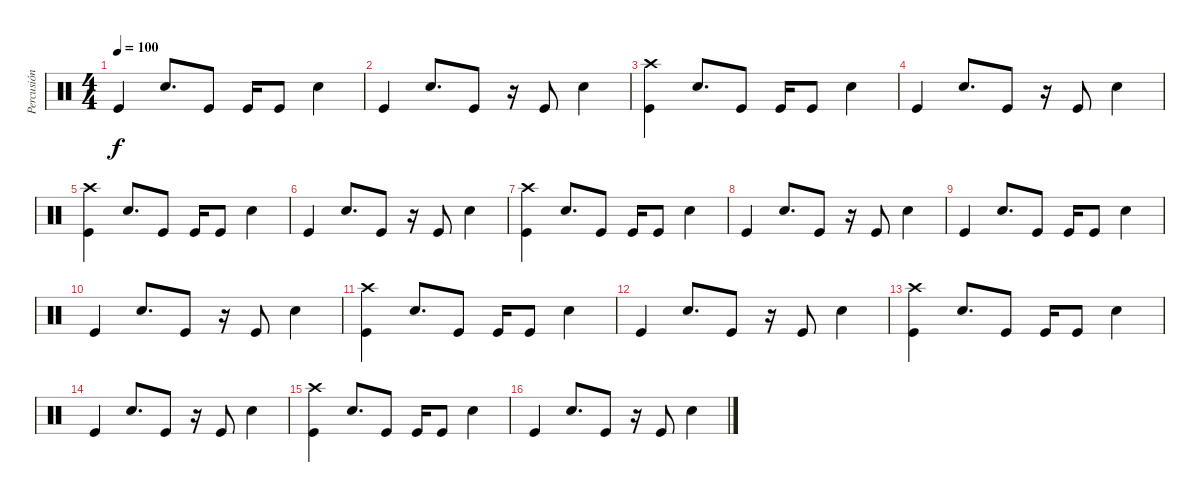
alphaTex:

\track ("Percusión" "Percusión") {instrument percussion}
\staff {score}
\articulation defaults
\ts (4 4)
\tempo 100
\clef neutral
\ks c "Kick (hit)".4{dy f} "Snare (hit) 2".8{d} "Kick (hit)".8 "Kick (hit)".16 "Kick (hit)".8 "Snare (hit) 2".4
|
"Kick (hit)".4 "Snare (hit) 2".8{d} "Kick (hit)".8 r.16 "Kick (hit)".8 "Snare (hit) 2".4 |
("Crash high (hit)" "Kick (hit)").4 "Snare (hit) 2".8{d} "Kick (hit)".8 "Kick (hit)".16 "Kick (hit)".8 "Snare (hit) 2".4 |
"Kick (hit)".4 "Snare (hit) 2".8{d} "Kick (hit)".8 r.16 "Kick (hit)".8 "Snare (hit) 2".4 |
("Crash high (hit)" "Kick (hit)").4 "Snare (hit) 2".8{d} "Kick (hit)".8 "Kick (hit)".16 "Kick (hit)".8 "Snare (hit) 2".4 |
"Kick (hit)".4 "Snare (hit) 2".8{d} "Kick (hit)".8 r.16 "Kick (hit)".8 "Snare (hit) 2".4 |
("Crash high (hit)" "Kick (hit)").4 "Snare (hit) 2".8{d} "Kick (hit)".8 "Kick (hit)".16 "Kick (hit)".8 "Snare (hit) 2".4 |
"Kick (hit)".4 "Snare (hit) 2".8{d} "Kick (hit)".8 r.16 "Kick (hit)".8 "Snare (hit) 2".4 |
"Kick (hit)".4 "Snare (hit) 2".8{d} "Kick (hit)".8 "Kick (hit)".16 "Kick (hit)".8 "Snare (hit) 2".4 |
"Kick (hit)".4 "Snare (hit) 2".8{d} "Kick (hit)".8 r.16 "Kick (hit)".8 "Snare (hit) 2".4 |
("Crash high (hit)" "Kick (hit)").4 "Snare (hit) 2".8{d} "Kick (hit)".8 "Kick (hit)".16 "Kick (hit)".8 "Snare (hit) 2".4 |
"Kick (hit)".4 "Snare (hit) 2".8{d} "Kick (hit)".8 r.16 "Kick (hit)".8 "Snare (hit) 2".4 |
("Crash high (hit)" "Kick (hit)").4 "Snare (hit) 2".8{d} "Kick (hit)".8 "Kick (hit)".16 "Kick (hit)".8 "Snare (hit) 2".4 |
"Kick (hit)".4 "Snare (hit) 2".8{d} "Kick (hit)".8 r.16 "Kick (hit)".8 "Snare (hit) 2".4 |
("Crash high (hit)" "Kick (hit)").4 "Snare (hit) 2".8{d} "Kick (hit)".8 "Kick (hit)".16 "Kick (hit)".8 "Snare (hit) 2".4 |
"Kick (hit)".4 "Snare (hit) 2".8{d} "Kick (hit)".8 r.16 "Kick (hit)".8 "Snare (hit) 2".4
